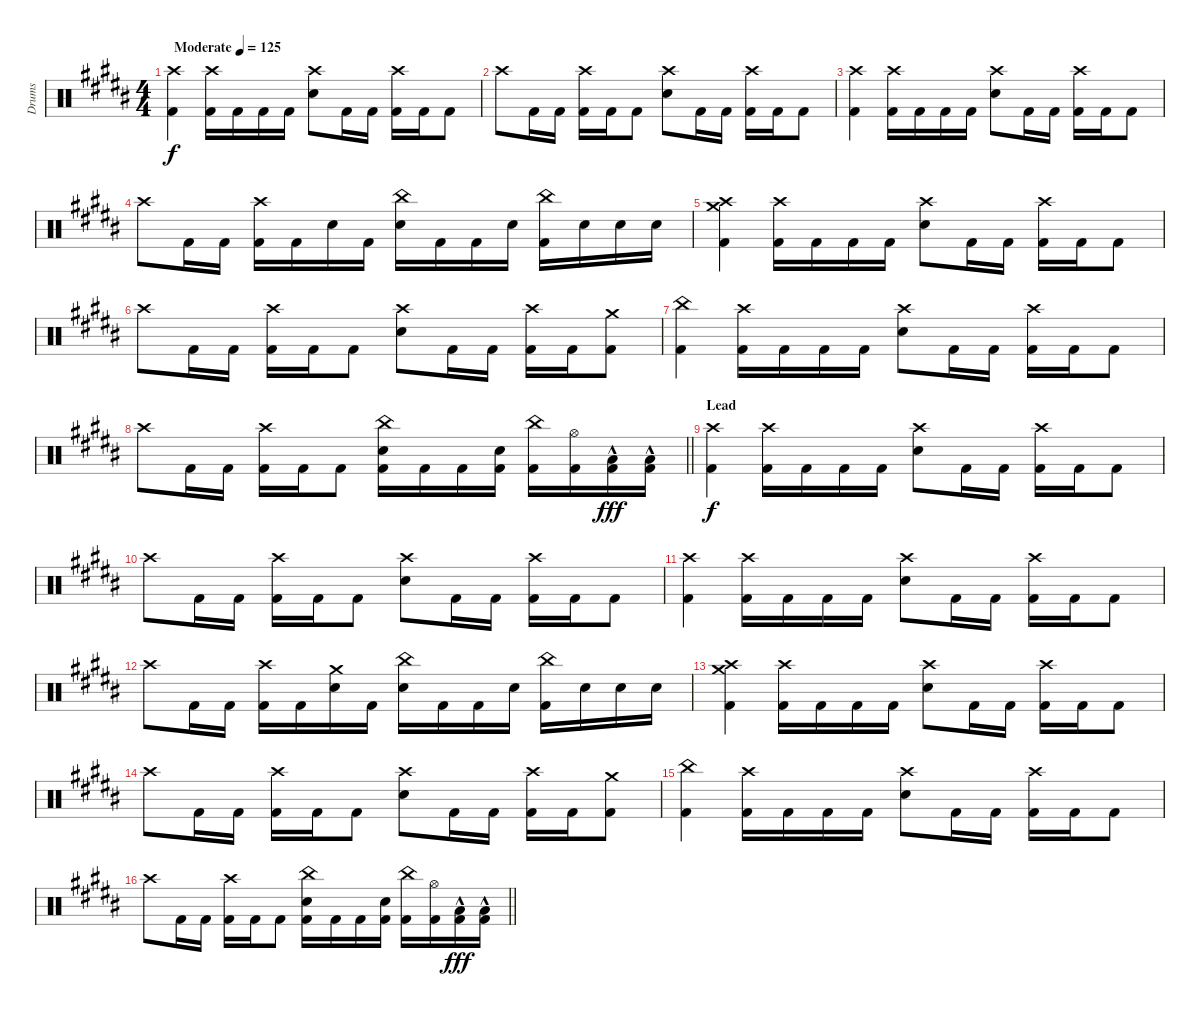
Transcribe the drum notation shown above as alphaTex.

\track ("Drums" "Drums") {instrument percussion}
\staff {score}
\articulation defaults
\ts (4 4)
\tempo (125 "Moderate")
\clef neutral
\ks b
("Crash high (hit)" "Kick (hit) 2").4{dy f} ("Crash high (hit)" "Kick (hit) 2").16 "Kick (hit) 2".16 "Kick (hit) 2".16 "Kick (hit) 2".16 ("Crash high (hit)" "Electric Snare (hit)").8 "Kick (hit) 2".16 "Kick (hit) 2".16 ("Crash high (hit)" "Kick (hit) 2").16 "Kick (hit) 2".16 "Kick (hit) 2".8 |
"Crash high (hit)".8 "Kick (hit) 2".16 "Kick (hit) 2".16 ("Crash high (hit)" "Kick (hit) 2").16 "Kick (hit) 2".16 "Kick (hit) 2".8 ("Crash high (hit)" "Electric Snare (hit)").8 "Kick (hit) 2".16 "Kick (hit) 2".16 ("Crash high (hit)" "Kick (hit) 2").16 "Kick (hit) 2".16 "Kick (hit) 2".8 |
("Crash high (hit)" "Kick (hit) 2").4 ("Crash high (hit)" "Kick (hit) 2").16 "Kick (hit) 2".16 "Kick (hit) 2".16 "Kick (hit) 2".16 ("Crash high (hit)" "Electric Snare (hit)").8 "Kick (hit) 2".16 "Kick (hit) 2".16 ("Crash high (hit)" "Kick (hit) 2").16 "Kick (hit) 2".16 "Kick (hit) 2".8 |
"Crash high (hit)".8 "Kick (hit) 2".16 "Kick (hit) 2".16 ("Crash high (hit)" "Kick (hit) 2").16 "Kick (hit) 2".16 "Electric Snare (hit)".16 "Kick (hit) 2".16 ("China (hit)" "Electric Snare (hit)").16 "Kick (hit) 2".16 "Kick (hit) 2".16 "Electric Snare (hit)".16 ("China (hit)" "Kick (hit) 2").16 "Electric Snare (hit)".16 "Electric Snare (hit)".16 "Electric Snare (hit)".16 |
("Crash high (hit)" "Crash medium (hit)" "Kick (hit) 2").4 ("Crash high (hit)" "Kick (hit) 2").16 "Kick (hit) 2".16 "Kick (hit) 2".16 "Kick (hit) 2".16 ("Crash high (hit)" "Electric Snare (hit)").8 "Kick (hit) 2".16 "Kick (hit) 2".16 ("Crash high (hit)" "Kick (hit) 2").16 "Kick (hit) 2".16 "Kick (hit) 2".8 |
"Crash high (hit)".8 "Kick (hit) 2".16 "Kick (hit) 2".16 ("Crash high (hit)" "Kick (hit) 2").16 "Kick (hit) 2".16 "Kick (hit) 2".8 ("Crash high (hit)" "Electric Snare (hit)").8 "Kick (hit) 2".16 "Kick (hit) 2".16 ("Crash high (hit)" "Kick (hit) 2").16 "Kick (hit) 2".16 ("Crash medium (hit)" "Kick (hit) 2").8 |
("China (hit)" "Kick (hit) 2").4 ("Crash high (hit)" "Kick (hit) 2").16 "Kick (hit) 2".16 "Kick (hit) 2".16 "Kick (hit) 2".16 ("Crash high (hit)" "Electric Snare (hit)").8 "Kick (hit) 2".16 "Kick (hit) 2".16 ("Crash high (hit)" "Kick (hit) 2").16 "Kick (hit) 2".16 "Kick (hit) 2".8 |
\barLineRight lightlight "Crash high (hit)".8 "Kick (hit) 2".16 "Kick (hit) 2".16
("Crash high (hit)" "Kick (hit) 2").16 "Kick (hit) 2".16 "Kick (hit) 2".8 ("China (hit)" "Electric Snare (hit)" "Kick (hit) 2").16 "Kick (hit) 2".16 "Kick (hit) 2".16 ("Electric Snare (hit)" "Kick (hit) 2").16 ("China (hit)" "Kick (hit) 2").16 ("Hi-Hat (open)" "Kick (hit) 2").16 ("Low Tom (hit)"{hac} "Kick (hit) 2").16{dy fff} ("Low Tom (hit)"{hac} "Kick (hit) 2").16 |
\section ("" "Lead")
("Crash high (hit)" "Kick (hit) 2").4{dy f} ("Crash high (hit)" "Kick (hit) 2").16 "Kick (hit) 2".16 "Kick (hit) 2".16 "Kick (hit) 2".16 ("Crash high (hit)" "Electric Snare (hit)").8 "Kick (hit) 2".16 "Kick (hit) 2".16 ("Crash high (hit)" "Kick (hit) 2").16 "Kick (hit) 2".16 "Kick (hit) 2".8 |
"Crash high (hit)".8 "Kick (hit) 2".16 "Kick (hit) 2".16 ("Crash high (hit)" "Kick (hit) 2").16 "Kick (hit) 2".16 "Kick (hit) 2".8 ("Crash high (hit)" "Electric Snare (hit)").8 "Kick (hit) 2".16 "Kick (hit) 2".16 ("Crash high (hit)" "Kick (hit) 2").16 "Kick (hit) 2".16 "Kick (hit) 2".8 |
("Crash high (hit)" "Kick (hit) 2").4 ("Crash high (hit)" "Kick (hit) 2").16 "Kick (hit) 2".16 "Kick (hit) 2".16 "Kick (hit) 2".16 ("Crash high (hit)" "Electric Snare (hit)").8 "Kick (hit) 2".16 "Kick (hit) 2".16 ("Crash high (hit)" "Kick (hit) 2").16 "Kick (hit) 2".16 "Kick (hit) 2".8 |
"Crash high (hit)".8 "Kick (hit) 2".16 "Kick (hit) 2".16 ("Crash high (hit)" "Kick (hit) 2").16 "Kick (hit) 2".16 ("Crash medium (hit)" "Electric Snare (hit)").16 "Kick (hit) 2".16 ("China (hit)" "Electric Snare (hit)").16 "Kick (hit) 2".16 "Kick (hit) 2".16 "Electric Snare (hit)".16 ("China (hit)" "Kick (hit) 2").16 "Electric Snare (hit)".16 "Electric Snare (hit)".16 "Electric Snare (hit)".16 |
("Crash high (hit)" "Crash medium (hit)" "Kick (hit) 2").4 ("Crash high (hit)" "Kick (hit) 2").16 "Kick (hit) 2".16 "Kick (hit) 2".16 "Kick (hit) 2".16 ("Crash high (hit)" "Electric Snare (hit)").8 "Kick (hit) 2".16 "Kick (hit) 2".16 ("Crash high (hit)" "Kick (hit) 2").16 "Kick (hit) 2".16 "Kick (hit) 2".8 |
"Crash high (hit)".8 "Kick (hit) 2".16 "Kick (hit) 2".16 ("Crash high (hit)" "Kick (hit) 2").16 "Kick (hit) 2".16 "Kick (hit) 2".8 ("Crash high (hit)" "Electric Snare (hit)").8 "Kick (hit) 2".16 "Kick (hit) 2".16 ("Crash high (hit)" "Kick (hit) 2").16 "Kick (hit) 2".16 ("Crash medium (hit)" "Kick (hit) 2").8 |
("China (hit)" "Kick (hit) 2").4 ("Crash high (hit)" "Kick (hit) 2").16 "Kick (hit) 2".16 "Kick (hit) 2".16 "Kick (hit) 2".16 ("Crash high (hit)" "Electric Snare (hit)").8 "Kick (hit) 2".16 "Kick (hit) 2".16 ("Crash high (hit)" "Kick (hit) 2").16 "Kick (hit) 2".16 "Kick (hit) 2".8 |
\barLineRight lightlight "Crash high (hit)".8 "Kick (hit) 2".16 "Kick (hit) 2".16
("Crash high (hit)" "Kick (hit) 2").16 "Kick (hit) 2".16 "Kick (hit) 2".8 ("China (hit)" "Electric Snare (hit)" "Kick (hit) 2").16 "Kick (hit) 2".16 "Kick (hit) 2".16 ("Electric Snare (hit)" "Kick (hit) 2").16 ("China (hit)" "Kick (hit) 2").16 ("Hi-Hat (open)" "Kick (hit) 2").16 ("Low Tom (hit)"{hac} "Kick (hit) 2").16{dy fff} ("Low Tom (hit)"{hac} "Kick (hit) 2").16
